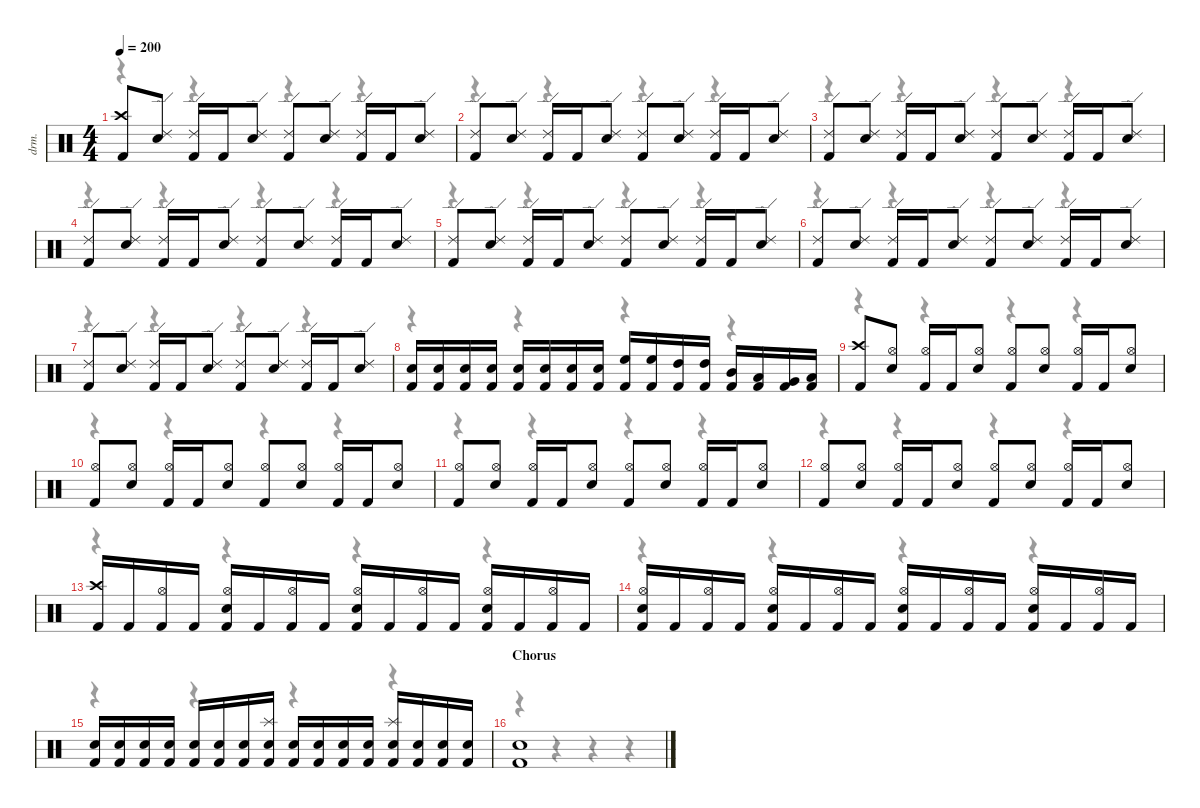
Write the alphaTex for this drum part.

\defaultSystemsLayout 4
\hideDynamics
\bracketExtendMode nobrackets
\otherSystemsTrackNameOrientation horizontal
\track ("David Mackintosh (Drums)" "drm.") {instrument percussion}
\staff {score}
\articulation defaults
\voice
\ts (4 4)
\tempo 200
\clef neutral
\ks c
("Kick (hit) 2" "Crash high (hit)").8{dy f} ("Snare (hit) 2" "Ride (edge) 2").8 ("Kick (hit) 2" "Ride (edge) 2").16 "Kick (hit) 2".16 ("Snare (hit) 2" "Ride (edge) 2").8 ("Kick (hit) 2" "Ride (edge) 2").8 ("Snare (hit) 2" "Ride (edge) 2").8 ("Kick (hit) 2" "Ride (edge) 2").16 "Kick (hit) 2".16 ("Snare (hit) 2" "Ride (edge) 2").8 |
("Kick (hit) 2" "Ride (edge) 2").8 ("Snare (hit) 2" "Ride (edge) 2").8 ("Kick (hit) 2" "Ride (edge) 2").16 "Kick (hit) 2".16 ("Snare (hit) 2" "Ride (edge) 2").8 ("Kick (hit) 2" "Ride (edge) 2").8 ("Snare (hit) 2" "Ride (edge) 2").8 ("Kick (hit) 2" "Ride (edge) 2").16 "Kick (hit) 2".16 ("Snare (hit) 2" "Ride (edge) 2").8 |
("Kick (hit) 2" "Ride (edge) 2").8 ("Snare (hit) 2" "Ride (edge) 2").8 ("Kick (hit) 2" "Ride (edge) 2").16 "Kick (hit) 2".16 ("Snare (hit) 2" "Ride (edge) 2").8 ("Kick (hit) 2" "Ride (edge) 2").8 ("Snare (hit) 2" "Ride (edge) 2").8 ("Kick (hit) 2" "Ride (edge) 2").16 "Kick (hit) 2".16 ("Snare (hit) 2" "Ride (edge) 2").8 |
("Kick (hit) 2" "Ride (edge) 2").8 ("Snare (hit) 2" "Ride (edge) 2").8 ("Kick (hit) 2" "Ride (edge) 2").16 "Kick (hit) 2".16 ("Snare (hit) 2" "Ride (edge) 2").8 ("Kick (hit) 2" "Ride (edge) 2").8 ("Snare (hit) 2" "Ride (edge) 2").8 ("Kick (hit) 2" "Ride (edge) 2").16 "Kick (hit) 2".16 ("Snare (hit) 2" "Ride (edge) 2").8 |
("Kick (hit) 2" "Ride (edge) 2").8 ("Snare (hit) 2" "Ride (edge) 2").8 ("Kick (hit) 2" "Ride (edge) 2").16 "Kick (hit) 2".16 ("Snare (hit) 2" "Ride (edge) 2").8 ("Kick (hit) 2" "Ride (edge) 2").8 ("Snare (hit) 2" "Ride (edge) 2").8 ("Kick (hit) 2" "Ride (edge) 2").16 "Kick (hit) 2".16 ("Snare (hit) 2" "Ride (edge) 2").8 |
("Kick (hit) 2" "Ride (edge) 2").8 ("Snare (hit) 2" "Ride (edge) 2").8 ("Kick (hit) 2" "Ride (edge) 2").16 "Kick (hit) 2".16 ("Snare (hit) 2" "Ride (edge) 2").8 ("Kick (hit) 2" "Ride (edge) 2").8 ("Snare (hit) 2" "Ride (edge) 2").8 ("Kick (hit) 2" "Ride (edge) 2").16 "Kick (hit) 2".16 ("Snare (hit) 2" "Ride (edge) 2").8 |
("Kick (hit) 2" "Ride (edge) 2").8 ("Snare (hit) 2" "Ride (edge) 2").8 ("Kick (hit) 2" "Ride (edge) 2").16 "Kick (hit) 2".16 ("Snare (hit) 2" "Ride (edge) 2").8 ("Kick (hit) 2" "Ride (edge) 2").8 ("Snare (hit) 2" "Ride (edge) 2").8 ("Kick (hit) 2" "Ride (edge) 2").16 "Kick (hit) 2".16 ("Snare (hit) 2" "Ride (edge) 2").8 |
("Kick (hit) 2" "Snare (hit) 2").16 ("Kick (hit) 2" "Snare (hit) 2").16 ("Kick (hit) 2" "Snare (hit) 2").16 ("Kick (hit) 2" "Snare (hit) 2").16 ("Kick (hit) 2" "Snare (hit) 2").16 ("Kick (hit) 2" "Snare (hit) 2").16 ("Kick (hit) 2" "Snare (hit) 2").16 ("Kick (hit) 2" "Snare (hit) 2").16 ("Kick (hit) 2" "High Floor Tom (hit)").16 ("Kick (hit) 2" "High Floor Tom (hit)").16 ("Kick (hit) 2" "High Tom (hit)").16 ("Kick (hit) 2" "High Tom (hit)").16 ("Kick (hit) 2" "Mid Tom (hit)").16 ("Kick (hit) 2" "Low Tom (hit)").16 ("Kick (hit) 2" "Very Low Tom (hit)").16 ("Kick (hit) 2" "Low Floor Tom (hit)").16 |
("Kick (hit) 2" "Crash high (hit)").8 ("Snare (hit) 2" "Hi-Hat (open)").8 ("Kick (hit) 2" "Hi-Hat (open)").16 "Kick (hit) 2".16 ("Snare (hit) 2" "Hi-Hat (open)").8 ("Kick (hit) 2" "Hi-Hat (open)").8 ("Snare (hit) 2" "Hi-Hat (open)").8 ("Kick (hit) 2" "Hi-Hat (open)").16 "Kick (hit) 2".16 ("Snare (hit) 2" "Hi-Hat (open)").8 |
("Kick (hit) 2" "Hi-Hat (open)").8 ("Snare (hit) 2" "Hi-Hat (open)").8 ("Kick (hit) 2" "Hi-Hat (open)").16 "Kick (hit) 2".16 ("Snare (hit) 2" "Hi-Hat (open)").8 ("Kick (hit) 2" "Hi-Hat (open)").8 ("Snare (hit) 2" "Hi-Hat (open)").8 ("Kick (hit) 2" "Hi-Hat (open)").16 "Kick (hit) 2".16 ("Snare (hit) 2" "Hi-Hat (open)").8 |
("Kick (hit) 2" "Hi-Hat (open)").8 ("Snare (hit) 2" "Hi-Hat (open)").8 ("Kick (hit) 2" "Hi-Hat (open)").16 "Kick (hit) 2".16 ("Snare (hit) 2" "Hi-Hat (open)").8 ("Kick (hit) 2" "Hi-Hat (open)").8 ("Snare (hit) 2" "Hi-Hat (open)").8 ("Kick (hit) 2" "Hi-Hat (open)").16 "Kick (hit) 2".16 ("Snare (hit) 2" "Hi-Hat (open)").8 |
("Kick (hit) 2" "Hi-Hat (open)").8 ("Snare (hit) 2" "Hi-Hat (open)").8 ("Kick (hit) 2" "Hi-Hat (open)").16 "Kick (hit) 2".16 ("Snare (hit) 2" "Hi-Hat (open)").8 ("Kick (hit) 2" "Hi-Hat (open)").8 ("Snare (hit) 2" "Hi-Hat (open)").8 ("Kick (hit) 2" "Hi-Hat (open)").16 "Kick (hit) 2".16 ("Snare (hit) 2" "Hi-Hat (open)").8 |
("Kick (hit) 2" "Crash high (hit)").16 "Kick (hit) 2".16 ("Kick (hit) 2" "Hi-Hat (open)").16 "Kick (hit) 2".16 ("Kick (hit) 2" "Snare (hit) 2" "Hi-Hat (open)").16 "Kick (hit) 2".16 ("Kick (hit) 2" "Hi-Hat (open)").16 "Kick (hit) 2".16 ("Kick (hit) 2" "Snare (hit) 2" "Hi-Hat (open)").16 "Kick (hit) 2".16 ("Kick (hit) 2" "Hi-Hat (open)").16 "Kick (hit) 2".16 ("Kick (hit) 2" "Snare (hit) 2" "Hi-Hat (open)").16 "Kick (hit) 2".16 ("Kick (hit) 2" "Hi-Hat (open)").16 "Kick (hit) 2".16 |
("Kick (hit) 2" "Snare (hit) 2" "Hi-Hat (open)").16 "Kick (hit) 2".16 ("Kick (hit) 2" "Hi-Hat (open)").16 "Kick (hit) 2".16 ("Kick (hit) 2" "Snare (hit) 2" "Hi-Hat (open)").16 "Kick (hit) 2".16 ("Kick (hit) 2" "Hi-Hat (open)").16 "Kick (hit) 2".16 ("Kick (hit) 2" "Snare (hit) 2" "Hi-Hat (open)").16 "Kick (hit) 2".16 ("Kick (hit) 2" "Hi-Hat (open)").16 "Kick (hit) 2".16 ("Kick (hit) 2" "Snare (hit) 2" "Hi-Hat (open)").16 "Kick (hit) 2".16 ("Kick (hit) 2" "Hi-Hat (open)").16 "Kick (hit) 2".16 |
("Kick (hit) 2" "Snare (hit) 2").16 ("Kick (hit) 2" "Snare (hit) 2").16 ("Kick (hit) 2" "Snare (hit) 2").16 ("Kick (hit) 2" "Snare (hit) 2").16 ("Kick (hit) 2" "Snare (hit) 2").16 ("Kick (hit) 2" "Snare (hit) 2").16 ("Kick (hit) 2" "Snare (hit) 2").16 ("Kick (hit) 2" "Snare (hit) 2" "Splash (hit)").16 ("Kick (hit) 2" "Snare (hit) 2").16 ("Kick (hit) 2" "Snare (hit) 2").16 ("Kick (hit) 2" "Snare (hit) 2").16 ("Kick (hit) 2" "Snare (hit) 2").16 ("Kick (hit) 2" "Snare (hit) 2" "Splash (hit)").16 ("Kick (hit) 2" "Snare (hit) 2").16 ("Kick (hit) 2" "Snare (hit) 2").16 ("Kick (hit) 2" "Snare (hit) 2").16 |
\section ("" "Chorus")
("Kick (hit) 2" "Snare (hit) 2").1
\voice
\clef neutral
\ottava regular
\simile none
\ks c
r.4{dy mf} r.4 r.4 r.4 |
r.4 r.4 r.4 r.4 |
r.4 r.4 r.4 r.4 |
r.4 r.4 r.4 r.4 |
r.4 r.4 r.4 r.4 |
r.4 r.4 r.4 r.4 |
r.4 r.4 r.4 r.4 |
r.4 r.4 r.4 r.4 |
r.4 r.4 r.4 r.4 |
r.4 r.4 r.4 r.4 |
r.4 r.4 r.4 r.4 |
r.4 r.4 r.4 r.4 |
r.4 r.4 r.4 r.4 |
r.4 r.4 r.4 r.4 |
r.4 r.4 r.4 r.4 |
r.4 r.4 r.4 r.4
